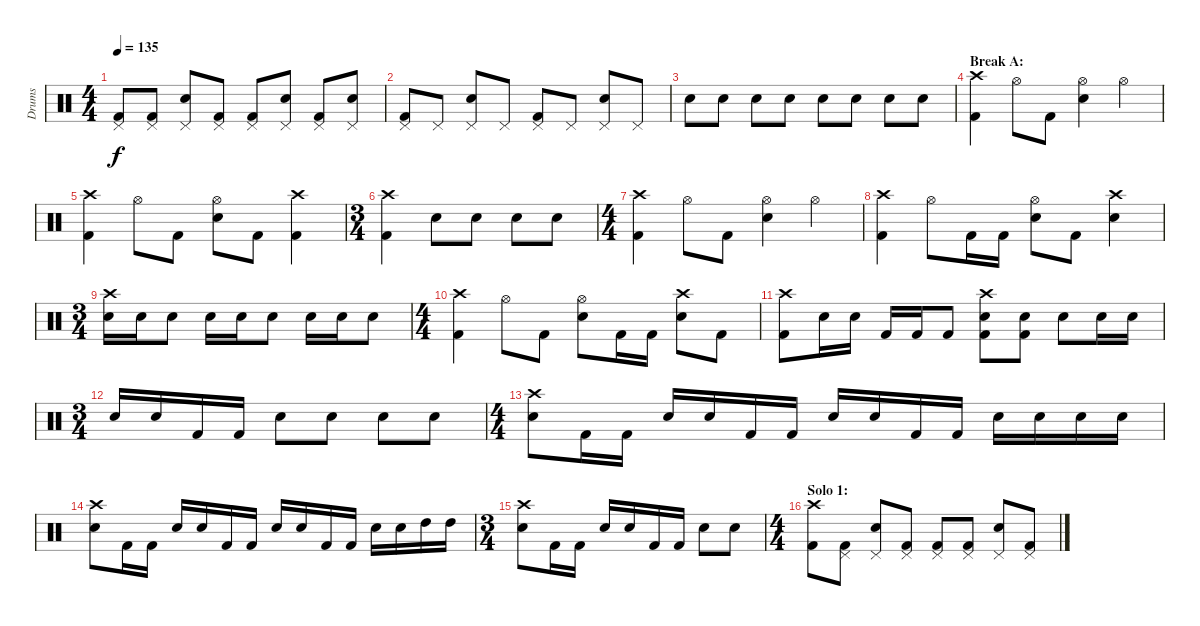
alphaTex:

\track ("Drums" "Drums") {instrument percussion}
\staff {score}
\articulation defaults
\ts (4 4)
\tempo 135
\clef neutral
\ks c
("Pedal Hi-Hat (hit)" "Kick (hit) 2").8{dy f} ("Pedal Hi-Hat (hit)" "Kick (hit) 2").8 ("Pedal Hi-Hat (hit)" "Snare (hit) 2").8 ("Pedal Hi-Hat (hit)" "Kick (hit) 2").8 ("Pedal Hi-Hat (hit)" "Kick (hit) 2").8 ("Pedal Hi-Hat (hit)" "Snare (hit) 2").8 ("Pedal Hi-Hat (hit)" "Kick (hit) 2").8 ("Pedal Hi-Hat (hit)" "Snare (hit) 2").8 |
("Pedal Hi-Hat (hit)" "Kick (hit) 2").8 "Pedal Hi-Hat (hit)".8 ("Pedal Hi-Hat (hit)" "Snare (hit) 2").8 "Pedal Hi-Hat (hit)".8 ("Pedal Hi-Hat (hit)" "Kick (hit) 2").8 "Pedal Hi-Hat (hit)".8 ("Pedal Hi-Hat (hit)" "Snare (hit) 2").8 "Pedal Hi-Hat (hit)".8 |
"Snare (hit) 2".8 "Snare (hit) 2".8 "Snare (hit) 2".8 "Snare (hit) 2".8 "Snare (hit) 2".8 "Snare (hit) 2".8 "Snare (hit) 2".8 "Snare (hit) 2".8 |
\section ("" "Break A:")
("Crash high (hit)" "Kick (hit) 2").4 "Hi-Hat (open)".8 "Kick (hit) 2".8 ("Hi-Hat (open)" "Snare (hit) 2").4 "Hi-Hat (open)".4 |
("Crash high (hit)" "Kick (hit) 2").4 "Hi-Hat (open)".8 "Kick (hit) 2".8 ("Hi-Hat (open)" "Snare (hit) 2").8 "Kick (hit) 2".8 ("Crash high (hit)" "Kick (hit) 2").4 |
\ts (3 4)
("Crash high (hit)" "Kick (hit) 2").4 "Snare (hit) 2".8 "Snare (hit) 2".8 "Snare (hit) 2".8 "Snare (hit) 2".8 |
\ts (4 4)
("Crash high (hit)" "Kick (hit) 2").4 "Hi-Hat (open)".8 "Kick (hit) 2".8 ("Hi-Hat (open)" "Snare (hit) 2").4 "Hi-Hat (open)".4 |
("Crash high (hit)" "Kick (hit) 2").4 "Hi-Hat (open)".8 "Kick (hit) 2".16 "Kick (hit) 2".16 ("Hi-Hat (open)" "Snare (hit) 2").8 "Kick (hit) 2".8 ("Crash high (hit)" "Snare (hit) 2").4 |
\ts (3 4)
("Crash high (hit)" "Snare (hit) 2").16 "Snare (hit) 2".16 "Snare (hit) 2".8 "Snare (hit) 2".16 "Snare (hit) 2".16 "Snare (hit) 2".8 "Snare (hit) 2".16 "Snare (hit) 2".16 "Snare (hit) 2".8 |
\ts (4 4)
("Crash high (hit)" "Kick (hit) 2").4 "Hi-Hat (open)".8 "Kick (hit) 2".8 ("Hi-Hat (open)" "Snare (hit) 2").8 "Kick (hit) 2".16 "Kick (hit) 2".16 ("Crash high (hit)" "Snare (hit) 2").8 "Kick (hit) 2".8 |
("Crash high (hit)" "Kick (hit) 2").8 "Snare (hit) 2".16 "Snare (hit) 2".16 "Kick (hit) 2".16 "Kick (hit) 2".16 "Kick (hit) 2".8 ("Crash high (hit)" "Snare (hit) 2" "Kick (hit) 2").8 ("Snare (hit) 2" "Kick (hit) 2").8 "Snare (hit) 2".8 "Snare (hit) 2".16 "Snare (hit) 2".16 |
\ts (3 4)
"Snare (hit) 2".16 "Snare (hit) 2".16 "Kick (hit) 2".16 "Kick (hit) 2".16 "Snare (hit) 2".8 "Snare (hit) 2".8 "Snare (hit) 2".8 "Snare (hit) 2".8 |
\ts (4 4)
("Crash high (hit)" "Snare (hit) 2").8 "Kick (hit) 2".16 "Kick (hit) 2".16 "Snare (hit) 2".16 "Snare (hit) 2".16 "Kick (hit) 2".16 "Kick (hit) 2".16 "Snare (hit) 2".16 "Snare (hit) 2".16 "Kick (hit) 2".16 "Kick (hit) 2".16 "Snare (hit) 2".16 "Snare (hit) 2".16 "Snare (hit) 2".16 "Snare (hit) 2".16 |
("Crash high (hit)" "Snare (hit) 2").8 "Kick (hit) 2".16 "Kick (hit) 2".16 "Snare (hit) 2".16 "Snare (hit) 2".16 "Kick (hit) 2".16 "Kick (hit) 2".16 "Snare (hit) 2".16 "Snare (hit) 2".16 "Kick (hit) 2".16 "Kick (hit) 2".16 "Snare (hit) 2".16 "Snare (hit) 2".16 "High Tom (hit)".16 "High Tom (hit)".16 |
\ts (3 4)
("Crash high (hit)" "Snare (hit) 2").8 "Kick (hit) 2".16 "Kick (hit) 2".16 "Snare (hit) 2".16 "Snare (hit) 2".16 "Kick (hit) 2".16 "Kick (hit) 2".16 "Snare (hit) 2".8 "Snare (hit) 2".8 |
\ts (4 4)
\section ("" "Solo 1:")
("Crash high (hit)" "Kick (hit) 2").8 ("Pedal Hi-Hat (hit)" "Kick (hit) 2").8 ("Pedal Hi-Hat (hit)" "Snare (hit) 2").8 ("Pedal Hi-Hat (hit)" "Kick (hit) 2").8 ("Pedal Hi-Hat (hit)" "Kick (hit) 2").8 ("Pedal Hi-Hat (hit)" "Kick (hit) 2").8 ("Pedal Hi-Hat (hit)" "Snare (hit) 2").8 ("Pedal Hi-Hat (hit)" "Kick (hit) 2").8
